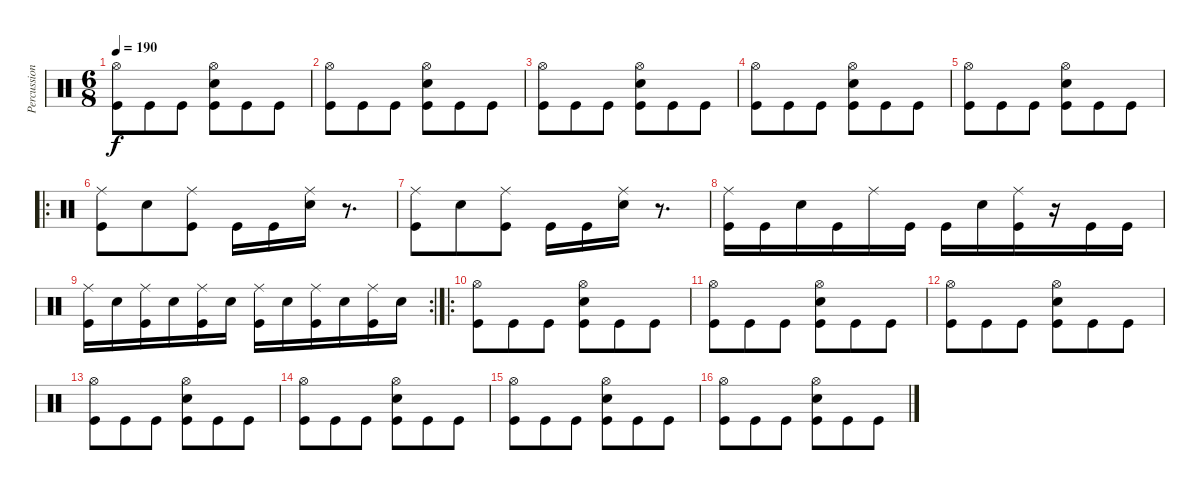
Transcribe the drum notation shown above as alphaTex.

\track ("Percussion" "Percussion") {instrument percussion}
\staff {score}
\articulation defaults
\ts (6 8)
\tempo 190
\clef neutral
\ks c
("Hi-Hat (open)" "Kick (hit)").8{dy f} "Kick (hit)".8 "Kick (hit)".8 ("Hi-Hat (open)" "Snare (hit) 2" "Kick (hit)").8 "Kick (hit)".8 "Kick (hit)".8 |
("Hi-Hat (open)" "Kick (hit)").8 "Kick (hit)".8 "Kick (hit)".8 ("Hi-Hat (open)" "Snare (hit) 2" "Kick (hit)").8 "Kick (hit)".8 "Kick (hit)".8 |
("Hi-Hat (open)" "Kick (hit)").8 "Kick (hit)".8 "Kick (hit)".8 ("Hi-Hat (open)" "Snare (hit) 2" "Kick (hit)").8 "Kick (hit)".8 "Kick (hit)".8 |
("Hi-Hat (open)" "Kick (hit)").8 "Kick (hit)".8 "Kick (hit)".8 ("Hi-Hat (open)" "Snare (hit) 2" "Kick (hit)").8 "Kick (hit)".8 "Kick (hit)".8 |
("Hi-Hat (open)" "Kick (hit)").8 "Kick (hit)".8 "Kick (hit)".8 ("Hi-Hat (open)" "Snare (hit) 2" "Kick (hit)").8 "Kick (hit)".8 "Kick (hit)".8 |
\ro
("Ride (middle)" "Kick (hit)").8 "Snare (hit) 2".8 ("Ride (middle)" "Kick (hit)").8 "Kick (hit)".16 "Kick (hit)".16 ("Ride (middle)" "Snare (hit) 2").16 r.8{d} |
("Ride (middle)" "Kick (hit)").8 "Snare (hit) 2".8 ("Ride (middle)" "Kick (hit)").8 "Kick (hit)".16 "Kick (hit)".16 ("Ride (middle)" "Snare (hit) 2").16 r.8{d} |
("Ride (middle)" "Kick (hit)").16 "Kick (hit)".16 "Snare (hit) 2".16 "Kick (hit)".16 "Ride (middle)".16 "Kick (hit)".16 "Kick (hit)".16 "Snare (hit) 2".16 ("Ride (middle)" "Kick (hit)").16 r.16 "Kick (hit)".16 "Kick (hit)".16 |
\rc 2
("Ride (middle)" "Kick (hit)").16 "Snare (hit) 2".16 ("Ride (middle)" "Kick (hit)").16 "Snare (hit) 2".16 ("Ride (middle)" "Kick (hit)").16 "Snare (hit) 2".16 ("Ride (middle)" "Kick (hit)").16 "Snare (hit) 2".16 ("Ride (middle)" "Kick (hit)").16 "Snare (hit) 2".16 ("Ride (middle)" "Kick (hit)").16 "Snare (hit) 2".16 |
\ro
("Hi-Hat (open)" "Kick (hit)").8 "Kick (hit)".8 "Kick (hit)".8 ("Hi-Hat (open)" "Snare (hit) 2" "Kick (hit)").8 "Kick (hit)".8 "Kick (hit)".8 |
("Hi-Hat (open)" "Kick (hit)").8 "Kick (hit)".8 "Kick (hit)".8 ("Hi-Hat (open)" "Snare (hit) 2" "Kick (hit)").8 "Kick (hit)".8 "Kick (hit)".8 |
("Hi-Hat (open)" "Kick (hit)").8 "Kick (hit)".8 "Kick (hit)".8 ("Hi-Hat (open)" "Snare (hit) 2" "Kick (hit)").8 "Kick (hit)".8 "Kick (hit)".8 |
("Hi-Hat (open)" "Kick (hit)").8 "Kick (hit)".8 "Kick (hit)".8 ("Hi-Hat (open)" "Snare (hit) 2" "Kick (hit)").8 "Kick (hit)".8 "Kick (hit)".8 |
("Hi-Hat (open)" "Kick (hit)").8 "Kick (hit)".8 "Kick (hit)".8 ("Hi-Hat (open)" "Snare (hit) 2" "Kick (hit)").8 "Kick (hit)".8 "Kick (hit)".8 |
("Hi-Hat (open)" "Kick (hit)").8 "Kick (hit)".8 "Kick (hit)".8 ("Hi-Hat (open)" "Snare (hit) 2" "Kick (hit)").8 "Kick (hit)".8 "Kick (hit)".8 |
("Hi-Hat (open)" "Kick (hit)").8 "Kick (hit)".8 "Kick (hit)".8 ("Hi-Hat (open)" "Snare (hit) 2" "Kick (hit)").8 "Kick (hit)".8 "Kick (hit)".8
